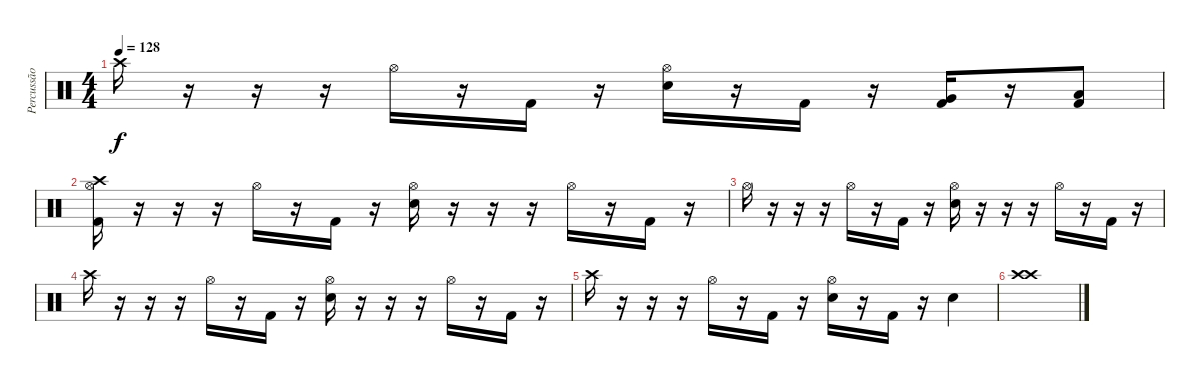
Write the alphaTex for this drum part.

\track ("Percussão" "Percussão") {instrument percussion}
\staff {score}
\articulation defaults
\ts (4 4)
\tempo 128
\clef neutral
\ks c "Crash high (hit)".16{dy f}
r.16 r.16 r.16 "Hi-Hat (open)".16 r.16 "Kick (hit) 2".16 r.16 ("Hi-Hat (open)" "Electric Snare (hit)").16 r.16 "Kick (hit) 2".16 r.16 ("Very Low Tom (hit)" "Kick (hit) 2").16 r.16 ("Low Floor Tom (hit)" "Kick (hit) 2").8 |
("Crash high (hit)" "Hi-Hat (open)" "Kick (hit) 2").16 r.16 r.16 r.16 "Hi-Hat (open)".16 r.16 "Kick (hit) 2".16 r.16 ("Hi-Hat (open)" "Electric Snare (hit)").16 r.16 r.16 r.16 "Hi-Hat (open)".16 r.16 "Kick (hit) 2".16 r.16 |
"Hi-Hat (open)".16 r.16 r.16 r.16 "Hi-Hat (open)".16 r.16 "Kick (hit) 2".16 r.16 ("Hi-Hat (open)" "Electric Snare (hit)").16 r.16 r.16 r.16 "Hi-Hat (open)".16 r.16 "Kick (hit) 2".16 r.16 |
"Crash high (hit)".16 r.16 r.16 r.16 "Hi-Hat (open)".16 r.16 "Kick (hit) 2".16 r.16 ("Hi-Hat (open)" "Electric Snare (hit)").16 r.16 r.16 r.16 "Hi-Hat (open)".16 r.16 "Kick (hit) 2".16 r.16 |
"Crash high (hit)".16 r.16 r.16 r.16 "Hi-Hat (open)".16 r.16 "Kick (hit) 2".16 r.16 ("Hi-Hat (open)" "Electric Snare (hit)").16 r.16 "Kick (hit) 2".16 r.16 "Electric Snare (hit)".4 |
("Crash high (hit)" "Crash high (hit)").1
